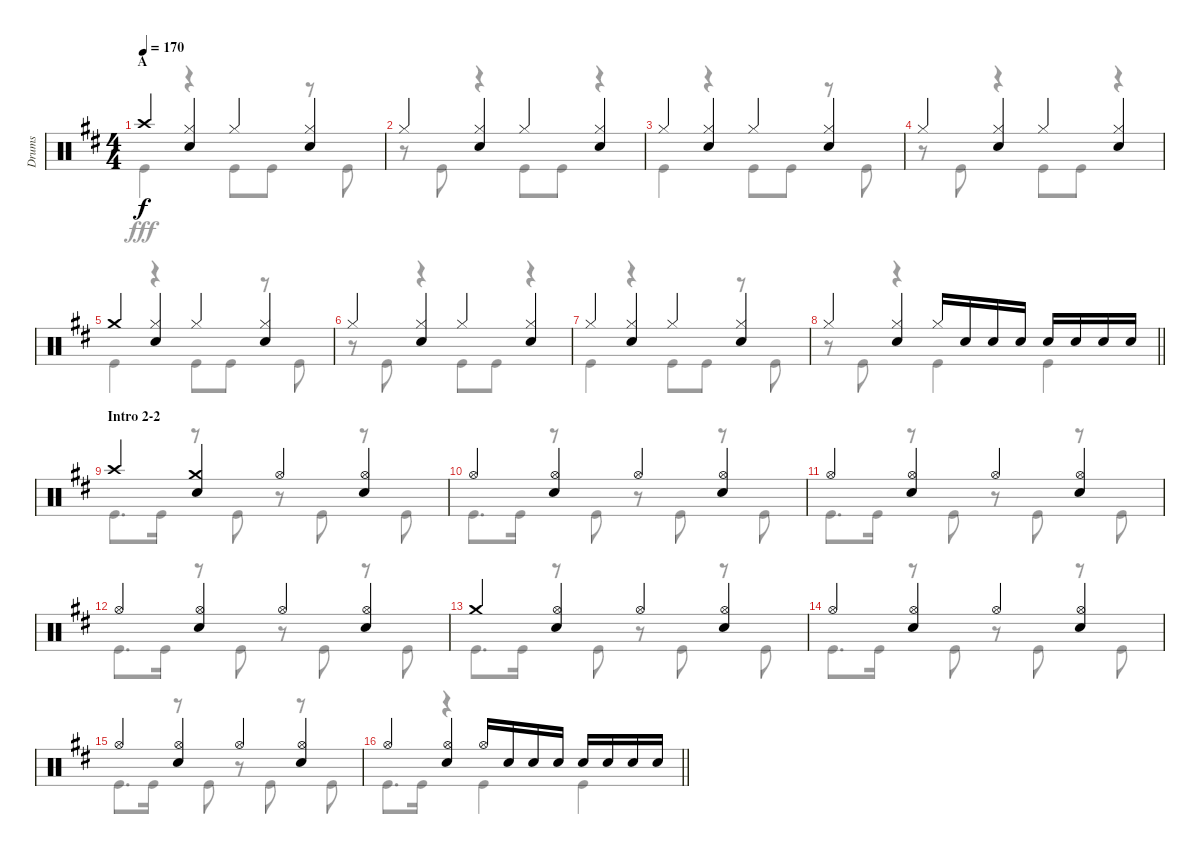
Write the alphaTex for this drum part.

\track ("Drums" "Drums") {instrument percussion}
\staff {score}
\articulation defaults
\voice
\ts (4 4)
\section ("" "A")
\tempo 170
\clef neutral
\ks d "Crash high (hit)".4{dy f}
("Hi-Hat (closed)" "Snare (hit) 2").4 "Hi-Hat (closed)".4 ("Hi-Hat (closed)" "Snare (hit) 2").4 |
"Hi-Hat (closed)".4 ("Hi-Hat (closed)" "Snare (hit) 2").4 "Hi-Hat (closed)".4 ("Hi-Hat (closed)" "Snare (hit) 2").4 |
"Hi-Hat (closed)".4 ("Hi-Hat (closed)" "Snare (hit) 2").4 "Hi-Hat (closed)".4 ("Hi-Hat (closed)" "Snare (hit) 2").4 |
"Hi-Hat (closed)".4 ("Hi-Hat (closed)" "Snare (hit) 2").4 "Hi-Hat (closed)".4 ("Hi-Hat (closed)" "Snare (hit) 2").4 |
"Crash medium (hit)".4 ("Hi-Hat (closed)" "Snare (hit) 2").4 "Hi-Hat (closed)".4 ("Hi-Hat (closed)" "Snare (hit) 2").4 |
"Hi-Hat (closed)".4 ("Hi-Hat (closed)" "Snare (hit) 2").4 "Hi-Hat (closed)".4 ("Hi-Hat (closed)" "Snare (hit) 2").4 |
"Hi-Hat (closed)".4 ("Hi-Hat (closed)" "Snare (hit) 2").4 "Hi-Hat (closed)".4 ("Hi-Hat (closed)" "Snare (hit) 2").4 |
\barLineRight lightlight "Hi-Hat (closed)".4
("Hi-Hat (closed)" "Snare (hit) 2").4 "Hi-Hat (closed)".16 "Snare (hit) 2".16 "Snare (hit) 2".16 "Snare (hit) 2".16 "Snare (hit) 2".16 "Snare (hit) 2".16 "Snare (hit) 2".16 "Snare (hit) 2".16 |
\section ("" "Intro 2-2")
"Crash high (hit)".4 ("Crash medium (hit)" "Snare (hit) 2").4 "Hi-Hat (open)".4 ("Hi-Hat (open)" "Snare (hit) 2").4 |
"Hi-Hat (open)".4 ("Hi-Hat (open)" "Snare (hit) 2").4 "Hi-Hat (open)".4 ("Hi-Hat (open)" "Snare (hit) 2").4 |
"Hi-Hat (open)".4 ("Hi-Hat (open)" "Snare (hit) 2").4 "Hi-Hat (open)".4 ("Hi-Hat (open)" "Snare (hit) 2").4 |
"Hi-Hat (open)".4 ("Hi-Hat (open)" "Snare (hit) 2").4 "Hi-Hat (open)".4 ("Hi-Hat (open)" "Snare (hit) 2").4 |
"Crash medium (hit)".4 ("Hi-Hat (open)" "Snare (hit) 2").4 "Hi-Hat (open)".4 ("Hi-Hat (open)" "Snare (hit) 2").4 |
"Hi-Hat (open)".4 ("Hi-Hat (open)" "Snare (hit) 2").4 "Hi-Hat (open)".4 ("Hi-Hat (open)" "Snare (hit) 2").4 |
"Hi-Hat (open)".4 ("Hi-Hat (open)" "Snare (hit) 2").4 "Hi-Hat (open)".4 ("Hi-Hat (open)" "Snare (hit) 2").4 |
\barLineRight lightlight "Hi-Hat (open)".4
("Hi-Hat (open)" "Snare (hit) 2").4 "Hi-Hat (open)".16 "Snare (hit) 2".16 "Snare (hit) 2".16 "Snare (hit) 2".16 "Snare (hit) 2".16 "Snare (hit) 2".16 "Snare (hit) 2".16 "Snare (hit) 2".16
\voice
\clef neutral
\ottava regular
\simile none
\ks d "Kick (hit)".4{dy fff}
r.4 "Kick (hit)".8 "Kick (hit)".8 r.8 "Kick (hit)".8 |
r.8 "Kick (hit)".8 r.4 "Kick (hit)".8 "Kick (hit)".8 r.4 |
"Kick (hit)".4 r.4 "Kick (hit)".8 "Kick (hit)".8 r.8 "Kick (hit)".8 |
r.8 "Kick (hit)".8 r.4 "Kick (hit)".8 "Kick (hit)".8 r.4 |
"Kick (hit)".4 r.4 "Kick (hit)".8 "Kick (hit)".8 r.8 "Kick (hit)".8 |
r.8 "Kick (hit)".8 r.4 "Kick (hit)".8 "Kick (hit)".8 r.4 |
"Kick (hit)".4 r.4 "Kick (hit)".8 "Kick (hit)".8 r.8 "Kick (hit)".8 |
\barLineRight lightlight
r.8 "Kick (hit)".8 r.4 "Kick (hit)".4 "Kick (hit)".4 |
"Kick (hit)".8{d} "Kick (hit)".16 r.8 "Kick (hit)".8 r.8 "Kick (hit)".8 r.8 "Kick (hit)".8 |
"Kick (hit)".8{d} "Kick (hit)".16 r.8 "Kick (hit)".8 r.8 "Kick (hit)".8 r.8 "Kick (hit)".8 |
"Kick (hit)".8{d} "Kick (hit)".16 r.8 "Kick (hit)".8 r.8 "Kick (hit)".8 r.8 "Kick (hit)".8 |
"Kick (hit)".8{d} "Kick (hit)".16 r.8 "Kick (hit)".8 r.8 "Kick (hit)".8 r.8 "Kick (hit)".8 |
"Kick (hit)".8{d} "Kick (hit)".16 r.8 "Kick (hit)".8 r.8 "Kick (hit)".8 r.8 "Kick (hit)".8 |
"Kick (hit)".8{d} "Kick (hit)".16 r.8 "Kick (hit)".8 r.8 "Kick (hit)".8 r.8 "Kick (hit)".8 |
"Kick (hit)".8{d} "Kick (hit)".16 r.8 "Kick (hit)".8 r.8 "Kick (hit)".8 r.8 "Kick (hit)".8 |
\barLineRight lightlight "Kick (hit)".8{d} "Kick (hit)".16
r.4 "Kick (hit)".4 "Kick (hit)".4
